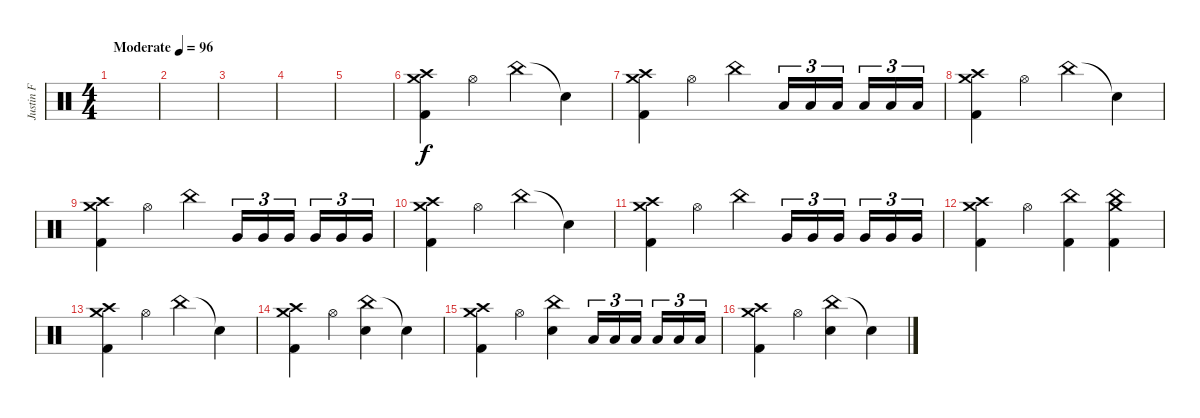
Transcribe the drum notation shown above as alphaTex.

\track ("Justin F" "Justin F") {instrument percussion}
\staff {score}
\articulation defaults
\ts (4 4)
\tempo (96 "Moderate")
\clef neutral
\ks c
|
|
|
|
|
("Kick (hit) 2" "Crash high (hit)" "Crash medium (hit)").4 "Hi-Hat (open)".4 "China (hit)".4 "Snare (hit)"{t}.4 |
("Kick (hit) 2" "Crash high (hit)" "Crash medium (hit)").4 "Hi-Hat (open)".4 "China (hit)".4 "Low Floor Tom (hit)".16{tu (3 2)} "Low Floor Tom (hit)".16{tu (3 2)} "Low Floor Tom (hit)".16{tu (3 2) beam splitsecondary} "Low Floor Tom (hit)".16{tu (3 2)} "Low Floor Tom (hit)".16{tu (3 2)} "Low Floor Tom (hit)".16{tu (3 2)} |
("Kick (hit) 2" "Crash high (hit)" "Crash medium (hit)").4 "Hi-Hat (open)".4 "China (hit)".4 "Snare (hit)"{t}.4 |
("Kick (hit) 2" "Crash high (hit)" "Crash medium (hit)").4 "Hi-Hat (open)".4 "China (hit)".4 "Very Low Tom (hit)".16{tu (3 2)} "Very Low Tom (hit)".16{tu (3 2)} "Very Low Tom (hit)".16{tu (3 2) beam splitsecondary} "Very Low Tom (hit)".16{tu (3 2)} "Very Low Tom (hit)".16{tu (3 2)} "Very Low Tom (hit)".16{tu (3 2)} |
("Kick (hit) 2" "Crash high (hit)" "Crash medium (hit)").4 "Hi-Hat (open)".4 "China (hit)".4 "Snare (hit)"{t}.4 |
("Kick (hit) 2" "Crash high (hit)" "Crash medium (hit)").4 "Hi-Hat (open)".4 "China (hit)".4 "Very Low Tom (hit)".16{tu (3 2)} "Very Low Tom (hit)".16{tu (3 2)} "Very Low Tom (hit)".16{tu (3 2) beam splitsecondary} "Very Low Tom (hit)".16{tu (3 2)} "Very Low Tom (hit)".16{tu (3 2)} "Very Low Tom (hit)".16{tu (3 2)} |
("Kick (hit) 2" "Crash high (hit)" "Crash medium (hit)").4 "Hi-Hat (open)".4 ("Kick (hit) 2" "China (hit)").4 ("Kick (hit) 2" "China (hit)" "Crash medium (hit)").4 |
("Kick (hit) 2" "Crash high (hit)" "Crash medium (hit)").4 "Hi-Hat (open)".4 "China (hit)".4 "Snare (hit)"{t}.4 |
("Kick (hit) 2" "Crash high (hit)" "Crash medium (hit)").4 "Hi-Hat (open)".4 ("China (hit)" "Electric Snare (hit)").4 "Snare (hit)"{t}.4 |
("Kick (hit) 2" "Crash high (hit)" "Crash medium (hit)").4 "Hi-Hat (open)".4 ("China (hit)" "Electric Snare (hit)").4 "Low Floor Tom (hit)".16{tu (3 2)} "Low Floor Tom (hit)".16{tu (3 2)} "Low Floor Tom (hit)".16{tu (3 2) beam splitsecondary} "Low Floor Tom (hit)".16{tu (3 2)} "Low Floor Tom (hit)".16{tu (3 2)} "Low Floor Tom (hit)".16{tu (3 2)} |
("Kick (hit) 2" "Crash high (hit)" "Crash medium (hit)").4 "Hi-Hat (open)".4 ("China (hit)" "Electric Snare (hit)").4 "Snare (hit)"{t}.4
